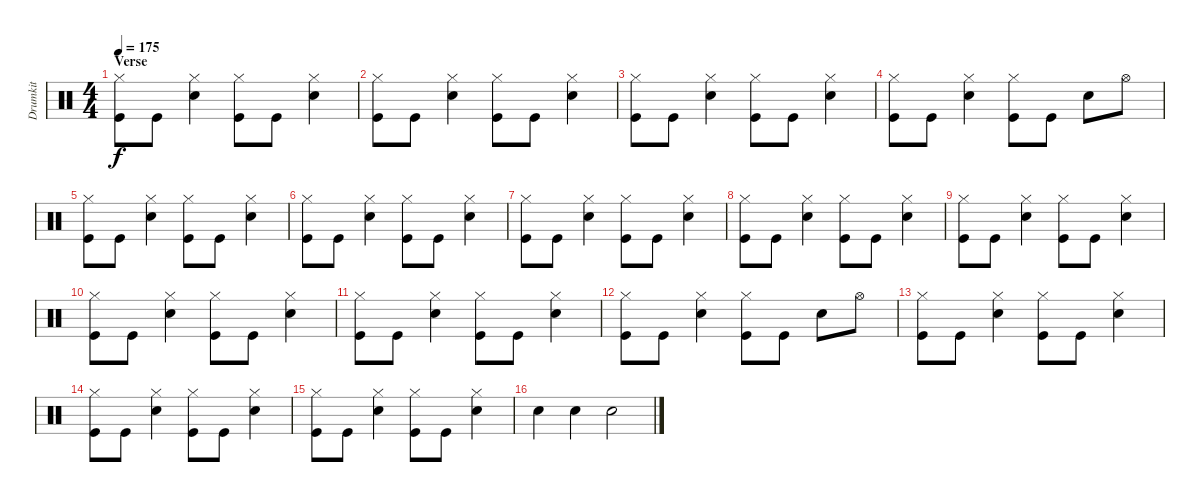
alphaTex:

\track ("Drumkit" "Drumkit") {instrument percussion}
\staff {score}
\articulation defaults
\ts (4 4)
\section ("" "Verse")
\tempo 175
\clef neutral
\ks c
("Kick (hit)" "Hi-Hat (closed)").8{dy f} "Kick (hit)".8 ("Snare (hit) 2" "Hi-Hat (closed)").4 ("Kick (hit)" "Hi-Hat (closed)").8 "Kick (hit)".8 ("Snare (hit) 2" "Hi-Hat (closed)").4 |
("Kick (hit)" "Hi-Hat (closed)").8 "Kick (hit)".8 ("Snare (hit) 2" "Hi-Hat (closed)").4 ("Kick (hit)" "Hi-Hat (closed)").8 "Kick (hit)".8 ("Snare (hit) 2" "Hi-Hat (closed)").4 |
("Kick (hit)" "Hi-Hat (closed)").8 "Kick (hit)".8 ("Snare (hit) 2" "Hi-Hat (closed)").4 ("Kick (hit)" "Hi-Hat (closed)").8 "Kick (hit)".8 ("Snare (hit) 2" "Hi-Hat (closed)").4 |
("Kick (hit)" "Hi-Hat (closed)").8 "Kick (hit)".8 ("Snare (hit) 2" "Hi-Hat (closed)").4 ("Kick (hit)" "Hi-Hat (closed)").8 "Kick (hit)".8 "Snare (hit) 2".8 "Hi-Hat (open)".8 |
("Kick (hit)" "Hi-Hat (closed)").8 "Kick (hit)".8 ("Snare (hit) 2" "Hi-Hat (closed)").4 ("Kick (hit)" "Hi-Hat (closed)").8 "Kick (hit)".8 ("Snare (hit) 2" "Hi-Hat (closed)").4 |
("Kick (hit)" "Hi-Hat (closed)").8 "Kick (hit)".8 ("Snare (hit) 2" "Hi-Hat (closed)").4 ("Kick (hit)" "Hi-Hat (closed)").8 "Kick (hit)".8 ("Snare (hit) 2" "Hi-Hat (closed)").4 |
("Kick (hit)" "Hi-Hat (closed)").8 "Kick (hit)".8 ("Snare (hit) 2" "Hi-Hat (closed)").4 ("Kick (hit)" "Hi-Hat (closed)").8 "Kick (hit)".8 ("Snare (hit) 2" "Hi-Hat (closed)").4 |
("Kick (hit)" "Hi-Hat (closed)").8 "Kick (hit)".8 ("Snare (hit) 2" "Hi-Hat (closed)").4 ("Kick (hit)" "Hi-Hat (closed)").8 "Kick (hit)".8 ("Snare (hit) 2" "Hi-Hat (closed)").4 |
("Kick (hit)" "Hi-Hat (closed)").8 "Kick (hit)".8 ("Snare (hit) 2" "Hi-Hat (closed)").4 ("Kick (hit)" "Hi-Hat (closed)").8 "Kick (hit)".8 ("Snare (hit) 2" "Hi-Hat (closed)").4 |
("Kick (hit)" "Hi-Hat (closed)").8 "Kick (hit)".8 ("Snare (hit) 2" "Hi-Hat (closed)").4 ("Kick (hit)" "Hi-Hat (closed)").8 "Kick (hit)".8 ("Snare (hit) 2" "Hi-Hat (closed)").4 |
("Kick (hit)" "Hi-Hat (closed)").8 "Kick (hit)".8 ("Snare (hit) 2" "Hi-Hat (closed)").4 ("Kick (hit)" "Hi-Hat (closed)").8 "Kick (hit)".8 ("Snare (hit) 2" "Hi-Hat (closed)").4 |
("Kick (hit)" "Hi-Hat (closed)").8 "Kick (hit)".8 ("Snare (hit) 2" "Hi-Hat (closed)").4 ("Kick (hit)" "Hi-Hat (closed)").8 "Kick (hit)".8 "Snare (hit) 2".8 "Hi-Hat (open)".8 |
("Kick (hit)" "Hi-Hat (closed)").8 "Kick (hit)".8 ("Snare (hit) 2" "Hi-Hat (closed)").4 ("Kick (hit)" "Hi-Hat (closed)").8 "Kick (hit)".8 ("Snare (hit) 2" "Hi-Hat (closed)").4 |
("Kick (hit)" "Hi-Hat (closed)").8 "Kick (hit)".8 ("Snare (hit) 2" "Hi-Hat (closed)").4 ("Kick (hit)" "Hi-Hat (closed)").8 "Kick (hit)".8 ("Snare (hit) 2" "Hi-Hat (closed)").4 |
("Kick (hit)" "Hi-Hat (closed)").8 "Kick (hit)".8 ("Snare (hit) 2" "Hi-Hat (closed)").4 ("Kick (hit)" "Hi-Hat (closed)").8 "Kick (hit)".8 ("Snare (hit) 2" "Hi-Hat (closed)").4 |
"Snare (hit) 2".4 "Snare (hit) 2".4 "Snare (hit) 2".2
